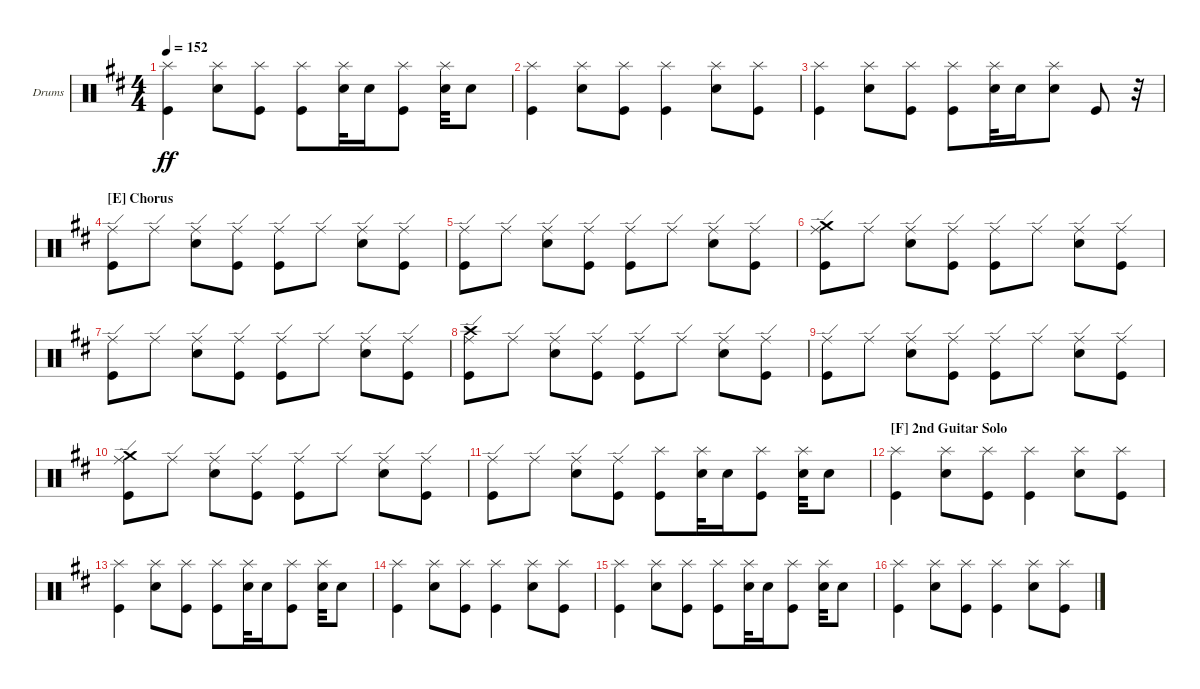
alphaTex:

\defaultSystemsLayout 4
\bracketExtendMode groupsimilarinstruments
\firstSystemTrackNameOrientation horizontal
\otherSystemsTrackNameOrientation horizontal
\track ("Drumkit" "Drums") {instrument percussion}
\staff {score}
\articulation defaults
\ts (4 4)
\tempo 152
\clef neutral
\ks d
("Kick (hit)" "Splash (hit)").4{dy ff} ("Snare (hit) 2" "Splash (hit)").8 ("Kick (hit)" "Splash (hit)").8 ("Kick (hit)" "Splash (hit)").8 ("Snare (hit) 2" "Splash (hit)").32 "Snare (hit) 2".16 ("Kick (hit)" "Splash (hit)").8 ("Snare (hit) 2" "Splash (hit)").32 "Snare (hit) 2".8 |
("Kick (hit)" "Splash (hit)").4 ("Snare (hit) 2" "Splash (hit)").8 ("Kick (hit)" "Splash (hit)").8 ("Kick (hit)" "Splash (hit)").4 ("Snare (hit) 2" "Splash (hit)").8 ("Kick (hit)" "Splash (hit)").8 |
("Kick (hit)" "Splash (hit)").4 ("Snare (hit) 2" "Splash (hit)").8 ("Kick (hit)" "Splash (hit)").8 ("Kick (hit)" "Splash (hit)").8 ("Snare (hit) 2" "Splash (hit)").32 "Snare (hit) 2".16 ("Snare (hit) 2" "Splash (hit)").8 "Kick (hit)".8 r.32 |
\section ("E" "Chorus")
("Kick (hit)" "Ride (edge)").8 "Ride (edge)".8 ("Snare (hit) 2" "Ride (edge)").8 ("Kick (hit)" "Ride (edge)").8 ("Kick (hit)" "Ride (edge)").8 "Ride (edge)".8 ("Snare (hit) 2" "Ride (edge)").8 ("Kick (hit)" "Ride (edge)").8 |
("Kick (hit)" "Ride (edge)").8 "Ride (edge)".8 ("Snare (hit) 2" "Ride (edge)").8 ("Kick (hit)" "Ride (edge)").8 ("Kick (hit)" "Ride (edge)").8 "Ride (edge)".8 ("Snare (hit) 2" "Ride (edge)").8 ("Kick (hit)" "Ride (edge)").8 |
("Kick (hit)" "Ride (edge)" "Crash medium (hit)").8 "Ride (edge)".8 ("Snare (hit) 2" "Ride (edge)").8 ("Kick (hit)" "Ride (edge)").8 ("Kick (hit)" "Ride (edge)").8 "Ride (edge)".8 ("Snare (hit) 2" "Ride (edge)").8 ("Kick (hit)" "Ride (edge)").8 |
("Kick (hit)" "Ride (edge)").8 "Ride (edge)".8 ("Snare (hit) 2" "Ride (edge)").8 ("Kick (hit)" "Ride (edge)").8 ("Kick (hit)" "Ride (edge)").8 "Ride (edge)".8 ("Snare (hit) 2" "Ride (edge)").8 ("Kick (hit)" "Ride (edge)").8 |
("Kick (hit)" "Ride (edge)" "Crash high (hit)").8 "Ride (edge)".8 ("Snare (hit) 2" "Ride (edge)").8 ("Kick (hit)" "Ride (edge)").8 ("Kick (hit)" "Ride (edge)").8 "Ride (edge)".8 ("Snare (hit) 2" "Ride (edge)").8 ("Kick (hit)" "Ride (edge)").8 |
("Kick (hit)" "Ride (edge)").8 "Ride (edge)".8 ("Snare (hit) 2" "Ride (edge)").8 ("Kick (hit)" "Ride (edge)").8 ("Kick (hit)" "Ride (edge)").8 "Ride (edge)".8 ("Snare (hit) 2" "Ride (edge)").8 ("Kick (hit)" "Ride (edge)").8 |
("Kick (hit)" "Ride (edge)" "Crash medium (hit)").8 "Ride (edge)".8 ("Snare (hit) 2" "Ride (edge)").8 ("Kick (hit)" "Ride (edge)").8 ("Kick (hit)" "Ride (edge)").8 "Ride (edge)".8 ("Snare (hit) 2" "Ride (edge)").8 ("Kick (hit)" "Ride (edge)").8 |
("Kick (hit)" "Ride (edge)").8 "Ride (edge)".8 ("Snare (hit) 2" "Ride (edge)").8 ("Kick (hit)" "Ride (edge)").8 ("Kick (hit)" "Splash (hit)").8 ("Snare (hit) 2" "Splash (hit)").32 "Snare (hit) 2".16 ("Kick (hit)" "Splash (hit)").8 ("Snare (hit) 2" "Splash (hit)").32 "Snare (hit) 2".8 |
\section ("F" "2nd Guitar Solo")
("Kick (hit)" "Splash (hit)").4 ("Snare (hit) 2" "Splash (hit)").8 ("Kick (hit)" "Splash (hit)").8 ("Kick (hit)" "Splash (hit)").4 ("Snare (hit) 2" "Splash (hit)").8 ("Kick (hit)" "Splash (hit)").8 |
("Kick (hit)" "Splash (hit)").4 ("Snare (hit) 2" "Splash (hit)").8 ("Kick (hit)" "Splash (hit)").8 ("Kick (hit)" "Splash (hit)").8 ("Snare (hit) 2" "Splash (hit)").32 "Snare (hit) 2".16 ("Kick (hit)" "Splash (hit)").8 ("Snare (hit) 2" "Splash (hit)").32 "Snare (hit) 2".8 |
("Kick (hit)" "Splash (hit)").4 ("Snare (hit) 2" "Splash (hit)").8 ("Kick (hit)" "Splash (hit)").8 ("Kick (hit)" "Splash (hit)").4 ("Snare (hit) 2" "Splash (hit)").8 ("Kick (hit)" "Splash (hit)").8 |
("Kick (hit)" "Splash (hit)").4 ("Snare (hit) 2" "Splash (hit)").8 ("Kick (hit)" "Splash (hit)").8 ("Kick (hit)" "Splash (hit)").8 ("Snare (hit) 2" "Splash (hit)").32 "Snare (hit) 2".16 ("Kick (hit)" "Splash (hit)").8 ("Snare (hit) 2" "Splash (hit)").32 "Snare (hit) 2".8 |
("Kick (hit)" "Splash (hit)").4 ("Snare (hit) 2" "Splash (hit)").8 ("Kick (hit)" "Splash (hit)").8 ("Kick (hit)" "Splash (hit)").4 ("Snare (hit) 2" "Splash (hit)").8 ("Kick (hit)" "Splash (hit)").8
